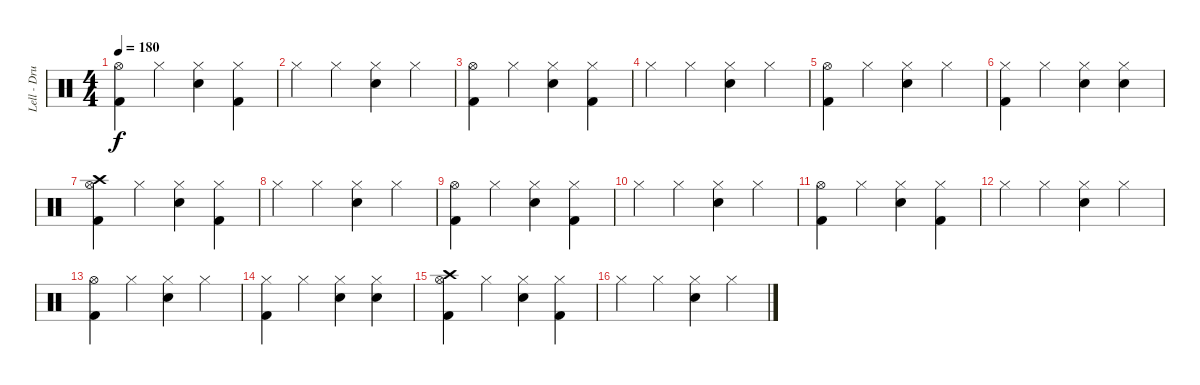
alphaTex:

\track ("Lell - Drums" "Lell - Dru") {instrument percussion}
\staff {score}
\articulation defaults
\ts (4 4)
\tempo 180
\clef neutral
\ks c
("Hi-Hat (open)" "Kick (hit) 2").4{dy f} "Hi-Hat (closed)".4 ("Hi-Hat (closed)" "Snare (hit) 2").4 ("Hi-Hat (closed)" "Kick (hit) 2").4 |
"Hi-Hat (closed)".4 "Hi-Hat (closed)".4 ("Hi-Hat (closed)" "Snare (hit) 2").4 "Hi-Hat (closed)".4 |
("Hi-Hat (open)" "Kick (hit) 2").4 "Hi-Hat (closed)".4 ("Hi-Hat (closed)" "Snare (hit) 2").4 ("Hi-Hat (closed)" "Kick (hit) 2").4 |
"Hi-Hat (closed)".4 "Hi-Hat (closed)".4 ("Hi-Hat (closed)" "Snare (hit) 2").4 "Hi-Hat (closed)".4 |
("Hi-Hat (open)" "Kick (hit) 2").4 "Hi-Hat (closed)".4 ("Hi-Hat (closed)" "Snare (hit) 2").4 "Hi-Hat (closed)".4 |
("Hi-Hat (closed)" "Kick (hit) 2").4 "Hi-Hat (closed)".4 ("Hi-Hat (closed)" "Snare (hit) 2").4 ("Hi-Hat (closed)" "Snare (hit) 2").4 |
("Crash high (hit)" "Hi-Hat (open)" "Kick (hit) 2").4 "Hi-Hat (closed)".4 ("Hi-Hat (closed)" "Snare (hit) 2").4 ("Hi-Hat (closed)" "Kick (hit) 2").4 |
"Hi-Hat (closed)".4 "Hi-Hat (closed)".4 ("Hi-Hat (closed)" "Snare (hit) 2").4 "Hi-Hat (closed)".4 |
("Hi-Hat (open)" "Kick (hit) 2").4 "Hi-Hat (closed)".4 ("Hi-Hat (closed)" "Snare (hit) 2").4 ("Hi-Hat (closed)" "Kick (hit) 2").4 |
"Hi-Hat (closed)".4 "Hi-Hat (closed)".4 ("Hi-Hat (closed)" "Snare (hit) 2").4 "Hi-Hat (closed)".4 |
("Hi-Hat (open)" "Kick (hit) 2").4 "Hi-Hat (closed)".4 ("Hi-Hat (closed)" "Snare (hit) 2").4 ("Hi-Hat (closed)" "Kick (hit) 2").4 |
"Hi-Hat (closed)".4 "Hi-Hat (closed)".4 ("Hi-Hat (closed)" "Snare (hit) 2").4 "Hi-Hat (closed)".4 |
("Hi-Hat (open)" "Kick (hit) 2").4 "Hi-Hat (closed)".4 ("Hi-Hat (closed)" "Snare (hit) 2").4 "Hi-Hat (closed)".4 |
("Hi-Hat (closed)" "Kick (hit) 2").4 "Hi-Hat (closed)".4 ("Hi-Hat (closed)" "Snare (hit) 2").4 ("Hi-Hat (closed)" "Snare (hit) 2").4 |
("Crash high (hit)" "Hi-Hat (open)" "Kick (hit) 2").4 "Hi-Hat (closed)".4 ("Hi-Hat (closed)" "Snare (hit) 2").4 ("Hi-Hat (closed)" "Kick (hit) 2").4 |
"Hi-Hat (closed)".4 "Hi-Hat (closed)".4 ("Hi-Hat (closed)" "Snare (hit) 2").4 "Hi-Hat (closed)".4
